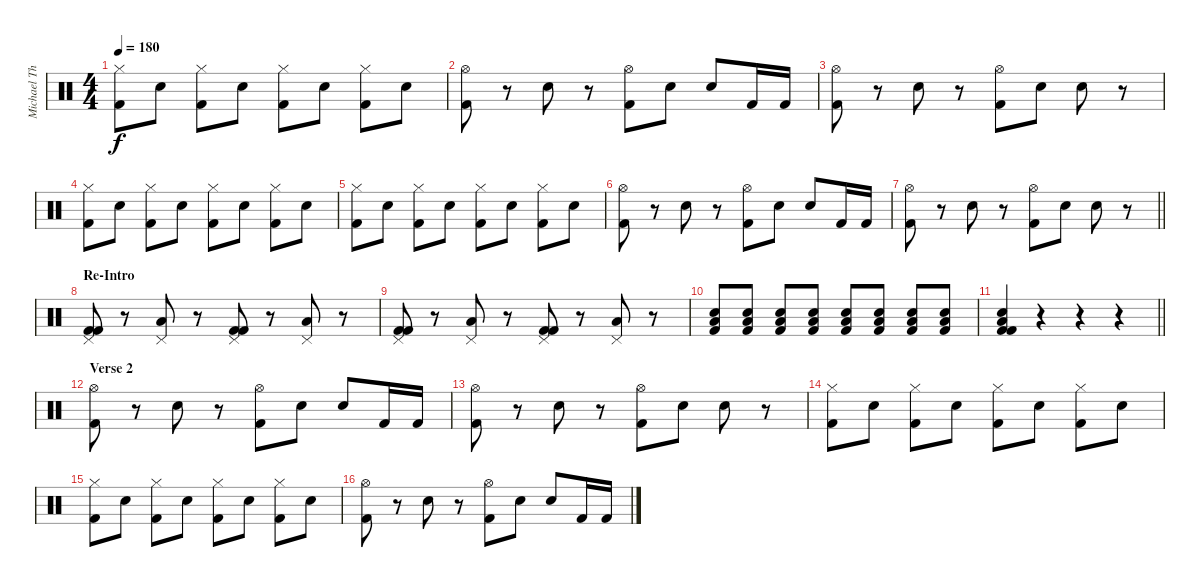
\track ("Michael Thomas" "Michael Th") {instrument percussion}
\staff
\articulation defaults
\ts (4 4)
\tempo 180
\clef neutral
\ks c
("Hi-Hat (closed)" "Kick (hit) 2").8{dy f} "Electric Snare (hit)".8 ("Hi-Hat (closed)" "Kick (hit) 2").8 "Electric Snare (hit)".8 ("Hi-Hat (closed)" "Kick (hit) 2").8 "Electric Snare (hit)".8 ("Hi-Hat (closed)" "Kick (hit) 2").8 "Electric Snare (hit)".8 |
("Hi-Hat (open)" "Kick (hit) 2").8 r.8 "Electric Snare (hit)".8 r.8 ("Hi-Hat (open)" "Kick (hit) 2").8 "Electric Snare (hit)".8 "Electric Snare (hit)".8 "Kick (hit) 2".16 "Kick (hit) 2".16 |
("Hi-Hat (open)" "Kick (hit) 2").8 r.8 "Electric Snare (hit)".8 r.8 ("Hi-Hat (open)" "Kick (hit) 2").8 "Electric Snare (hit)".8 "Electric Snare (hit)".8 r.8 |
("Hi-Hat (closed)" "Kick (hit) 2").8 "Electric Snare (hit)".8 ("Hi-Hat (closed)" "Kick (hit) 2").8 "Electric Snare (hit)".8 ("Hi-Hat (closed)" "Kick (hit) 2").8 "Electric Snare (hit)".8 ("Hi-Hat (closed)" "Kick (hit) 2").8 "Electric Snare (hit)".8 |
("Hi-Hat (closed)" "Kick (hit) 2").8 "Electric Snare (hit)".8 ("Hi-Hat (closed)" "Kick (hit) 2").8 "Electric Snare (hit)".8 ("Hi-Hat (closed)" "Kick (hit) 2").8 "Electric Snare (hit)".8 ("Hi-Hat (closed)" "Kick (hit) 2").8 "Electric Snare (hit)".8 |
("Hi-Hat (open)" "Kick (hit) 2").8 r.8 "Electric Snare (hit)".8 r.8 ("Hi-Hat (open)" "Kick (hit) 2").8 "Electric Snare (hit)".8 "Electric Snare (hit)".8 "Kick (hit) 2".16 "Kick (hit) 2".16 |
\barLineRight lightlight
("Hi-Hat (open)" "Kick (hit) 2").8 r.8 "Electric Snare (hit)".8 r.8 ("Hi-Hat (open)" "Kick (hit) 2").8 "Electric Snare (hit)".8 "Electric Snare (hit)".8 r.8 |
\section ("" "Re-Intro")
("Pedal Hi-Hat (hit)" "Kick (hit) 2" "Kick (hit) 2").8 r.8 ("Pedal Hi-Hat (hit)" "Low Floor Tom (hit)").8 r.8 ("Pedal Hi-Hat (hit)" "Kick (hit) 2" "Kick (hit) 2").8 r.8 ("Pedal Hi-Hat (hit)" "Low Floor Tom (hit)").8 r.8 |
("Pedal Hi-Hat (hit)" "Kick (hit) 2" "Kick (hit) 2").8 r.8 ("Pedal Hi-Hat (hit)" "Low Floor Tom (hit)").8 r.8 ("Pedal Hi-Hat (hit)" "Kick (hit) 2" "Kick (hit) 2").8 r.8 ("Pedal Hi-Hat (hit)" "Low Floor Tom (hit)").8 r.8 |
("Low Floor Tom (hit)" "Electric Snare (hit)" "Kick (hit) 2").8 ("Low Floor Tom (hit)" "Electric Snare (hit)" "Kick (hit) 2").8 ("Low Floor Tom (hit)" "Electric Snare (hit)" "Kick (hit) 2").8 ("Low Floor Tom (hit)" "Electric Snare (hit)" "Kick (hit) 2").8 ("Low Floor Tom (hit)" "Electric Snare (hit)" "Kick (hit) 2").8 ("Low Floor Tom (hit)" "Electric Snare (hit)" "Kick (hit) 2").8 ("Low Floor Tom (hit)" "Electric Snare (hit)" "Kick (hit) 2").8 ("Low Floor Tom (hit)" "Electric Snare (hit)" "Kick (hit) 2").8 |
\barLineRight lightlight
("Low Floor Tom (hit)" "Electric Snare (hit)" "Kick (hit) 2" "Kick (hit) 2").4 r.4 r.4 r.4 |
\section ("" "Verse 2")
("Hi-Hat (open)" "Kick (hit) 2").8 r.8 "Electric Snare (hit)".8 r.8 ("Hi-Hat (open)" "Kick (hit) 2").8 "Electric Snare (hit)".8 "Electric Snare (hit)".8 "Kick (hit) 2".16 "Kick (hit) 2".16 |
("Hi-Hat (open)" "Kick (hit) 2").8 r.8 "Electric Snare (hit)".8 r.8 ("Hi-Hat (open)" "Kick (hit) 2").8 "Electric Snare (hit)".8 "Electric Snare (hit)".8 r.8 |
("Hi-Hat (closed)" "Kick (hit) 2").8 "Electric Snare (hit)".8 ("Hi-Hat (closed)" "Kick (hit) 2").8 "Electric Snare (hit)".8 ("Hi-Hat (closed)" "Kick (hit) 2").8 "Electric Snare (hit)".8 ("Hi-Hat (closed)" "Kick (hit) 2").8 "Electric Snare (hit)".8 |
("Hi-Hat (closed)" "Kick (hit) 2").8 "Electric Snare (hit)".8 ("Hi-Hat (closed)" "Kick (hit) 2").8 "Electric Snare (hit)".8 ("Hi-Hat (closed)" "Kick (hit) 2").8 "Electric Snare (hit)".8 ("Hi-Hat (closed)" "Kick (hit) 2").8 "Electric Snare (hit)".8 |
("Hi-Hat (open)" "Kick (hit) 2").8 r.8 "Electric Snare (hit)".8 r.8 ("Hi-Hat (open)" "Kick (hit) 2").8 "Electric Snare (hit)".8 "Electric Snare (hit)".8 "Kick (hit) 2".16 "Kick (hit) 2".16
